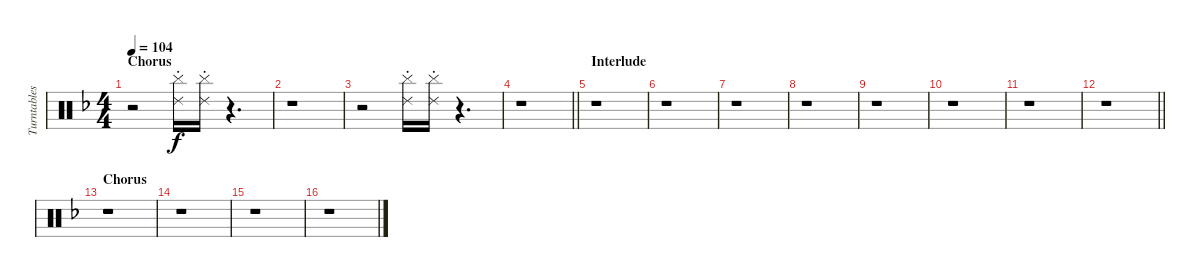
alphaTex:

\track ("Turntables" "Turntables") {instrument percussion}
\staff {score}
\articulation defaults
\ts (4 4)
\section ("" "Chorus")
\tempo 104
\clef neutral
\ks f
r.2{dy f} ("Ride (choke) 2" "Cymbal (hit)").16 ("Cymbal (hit)" "Ride (choke) 2").16 r.4{d} |
r.1 |
r.2 ("Ride (choke) 2" "Cymbal (hit)").16 ("Cymbal (hit)" "Ride (choke) 2").16 r.4{d} |
\barLineRight lightlight
r.1 |
\section ("" "Interlude")
r.1 |
r.1 |
r.1 |
r.1 |
r.1 |
r.1 |
r.1 |
\barLineRight lightlight
r.1 |
\section ("" "Chorus")
r.1 |
r.1 |
r.1 |
r.1
